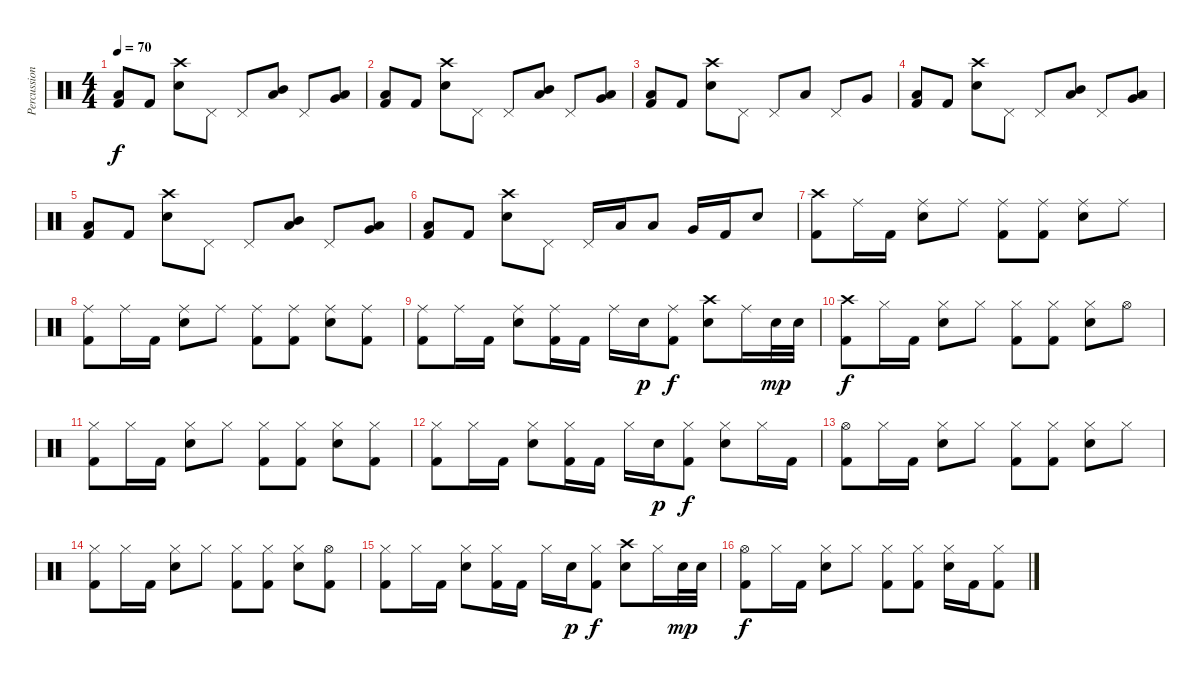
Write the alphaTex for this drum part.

\track ("Percussion" "Percussion") {instrument percussion}
\staff {score}
\articulation defaults
\ts (4 4)
\tempo 70
\clef neutral
\ks c
("Low Floor Tom (hit)" "Kick (hit) 2").8{dy f} "Kick (hit) 2".8 ("Crash high (hit)" "Snare (hit) 2").8 "Pedal Hi-Hat (hit)".8 "Pedal Hi-Hat (hit)".8 ("Mid Tom (hit)" "Low Tom (hit)").8 "Pedal Hi-Hat (hit)".8 ("Low Floor Tom (hit)" "Very Low Tom (hit)").8 |
("Low Floor Tom (hit)" "Kick (hit) 2").8 "Kick (hit) 2".8 ("Crash high (hit)" "Snare (hit) 2").8 "Pedal Hi-Hat (hit)".8 "Pedal Hi-Hat (hit)".8 ("Mid Tom (hit)" "Low Tom (hit)").8 "Pedal Hi-Hat (hit)".8 ("Low Floor Tom (hit)" "Very Low Tom (hit)").8 |
("Low Floor Tom (hit)" "Kick (hit) 2").8 "Kick (hit) 2".8 ("Crash high (hit)" "Snare (hit) 2").8 "Pedal Hi-Hat (hit)".8 "Pedal Hi-Hat (hit)".8 "Low Tom (hit)".8 "Pedal Hi-Hat (hit)".8 "Very Low Tom (hit)".8 |
("Low Floor Tom (hit)" "Kick (hit) 2").8 "Kick (hit) 2".8 ("Crash high (hit)" "Snare (hit) 2").8 "Pedal Hi-Hat (hit)".8 "Pedal Hi-Hat (hit)".8 ("Mid Tom (hit)" "Low Tom (hit)").8 "Pedal Hi-Hat (hit)".8 ("Low Floor Tom (hit)" "Very Low Tom (hit)").8 |
("Low Floor Tom (hit)" "Kick (hit) 2").8 "Kick (hit) 2".8 ("Crash high (hit)" "Snare (hit) 2").8 "Pedal Hi-Hat (hit)".8 "Pedal Hi-Hat (hit)".8 ("Mid Tom (hit)" "Low Tom (hit)").8 "Pedal Hi-Hat (hit)".8 ("Low Floor Tom (hit)" "Very Low Tom (hit)").8 |
("Low Floor Tom (hit)" "Kick (hit) 2").8 "Kick (hit) 2".8 ("Crash high (hit)" "Snare (hit) 2").8 "Pedal Hi-Hat (hit)".8 "Pedal Hi-Hat (hit)".16 "Low Tom (hit)".16 "Low Tom (hit)".8 "Very Low Tom (hit)".16 "Kick (hit) 2".16 "Snare (hit) 2".8 |
("Crash high (hit)" "Kick (hit) 2").8 "Ride (middle)".16 "Kick (hit) 2".16 ("Ride (middle)" "Snare (hit) 2").8 "Ride (middle)".8 ("Ride (middle)" "Kick (hit) 2").8 ("Ride (middle)" "Kick (hit) 2").8 ("Ride (middle)" "Snare (hit) 2").8 "Ride (middle)".8 |
("Ride (middle)" "Kick (hit) 2").8 "Ride (middle)".16 "Kick (hit) 2".16 ("Ride (middle)" "Snare (hit) 2").8 "Ride (middle)".8 ("Ride (middle)" "Kick (hit) 2").8 ("Ride (middle)" "Kick (hit) 2").8 ("Ride (middle)" "Snare (hit) 2").8 ("Ride (middle)" "Kick (hit) 2").8 |
("Ride (middle)" "Kick (hit) 2").8 "Ride (middle)".16 "Kick (hit) 2".16 ("Ride (middle)" "Snare (hit) 2").8 ("Ride (middle)" "Kick (hit) 2").16 "Kick (hit) 2".16 "Ride (middle)".16 "Snare (hit) 2".16{dy p} ("Ride (middle)" "Kick (hit) 2").8{dy f} ("Crash high (hit)" "Snare (hit) 2").8 "Ride (middle)".16 "Snare (hit) 2".32{dy mp} "Snare (hit) 2".32 |
("Crash high (hit)" "Kick (hit) 2").8{dy f} "Hi-Hat (closed)".16 "Kick (hit) 2".16 ("Hi-Hat (closed)" "Snare (hit) 2").8 "Hi-Hat (closed)".8 ("Hi-Hat (closed)" "Kick (hit) 2").8 ("Hi-Hat (closed)" "Kick (hit) 2").8 ("Hi-Hat (closed)" "Snare (hit) 2").8 "Hi-Hat (open)".8 |
("Hi-Hat (closed)" "Kick (hit) 2").8 "Hi-Hat (closed)".16 "Kick (hit) 2".16 ("Hi-Hat (closed)" "Snare (hit) 2").8 "Hi-Hat (closed)".8 ("Hi-Hat (closed)" "Kick (hit) 2").8 ("Hi-Hat (closed)" "Kick (hit) 2").8 ("Hi-Hat (closed)" "Snare (hit) 2").8 ("Hi-Hat (closed)" "Kick (hit) 2").8 |
("Hi-Hat (closed)" "Kick (hit) 2").8 "Hi-Hat (closed)".16 "Kick (hit) 2".16 ("Hi-Hat (closed)" "Snare (hit) 2").8 ("Hi-Hat (closed)" "Kick (hit) 2").16 "Kick (hit) 2".16 "Hi-Hat (closed)".16 "Snare (hit) 2".16{dy p} ("Hi-Hat (closed)" "Kick (hit) 2").8{dy f} ("Hi-Hat (closed)" "Snare (hit) 2").8 "Hi-Hat (closed)".16 "Kick (hit) 2".16 |
("Hi-Hat (open)" "Kick (hit) 2").8 "Hi-Hat (closed)".16 "Kick (hit) 2".16 ("Hi-Hat (closed)" "Snare (hit) 2").8 "Hi-Hat (closed)".8 ("Hi-Hat (closed)" "Kick (hit) 2").8 ("Hi-Hat (closed)" "Kick (hit) 2").8 ("Hi-Hat (closed)" "Snare (hit) 2").8 "Hi-Hat (closed)".8 |
("Hi-Hat (closed)" "Kick (hit) 2").8 "Hi-Hat (closed)".16 "Kick (hit) 2".16 ("Hi-Hat (closed)" "Snare (hit) 2").8 "Hi-Hat (closed)".8 ("Hi-Hat (closed)" "Kick (hit) 2").8 ("Hi-Hat (closed)" "Kick (hit) 2").8 ("Hi-Hat (closed)" "Snare (hit) 2").8 ("Hi-Hat (open)" "Kick (hit) 2").8 |
("Hi-Hat (closed)" "Kick (hit) 2").8 "Hi-Hat (closed)".16 "Kick (hit) 2".16 ("Hi-Hat (closed)" "Snare (hit) 2").8 ("Hi-Hat (closed)" "Kick (hit) 2").16 "Kick (hit) 2".16 "Hi-Hat (closed)".16 "Snare (hit) 2".16{dy p} ("Hi-Hat (closed)" "Kick (hit) 2").8{dy f} ("Crash high (hit)" "Snare (hit) 2").8 "Hi-Hat (closed)".16 "Snare (hit) 2".32{dy mp} "Snare (hit) 2".32 |
("Hi-Hat (open)" "Kick (hit) 2").8{dy f} "Hi-Hat (closed)".16 "Kick (hit) 2".16 ("Hi-Hat (closed)" "Snare (hit) 2").8 "Hi-Hat (closed)".8 ("Hi-Hat (closed)" "Kick (hit) 2").8 ("Hi-Hat (closed)" "Kick (hit) 2").8 ("Hi-Hat (closed)" "Snare (hit) 2").16 "Kick (hit) 2".16 ("Hi-Hat (closed)" "Kick (hit) 2").8
